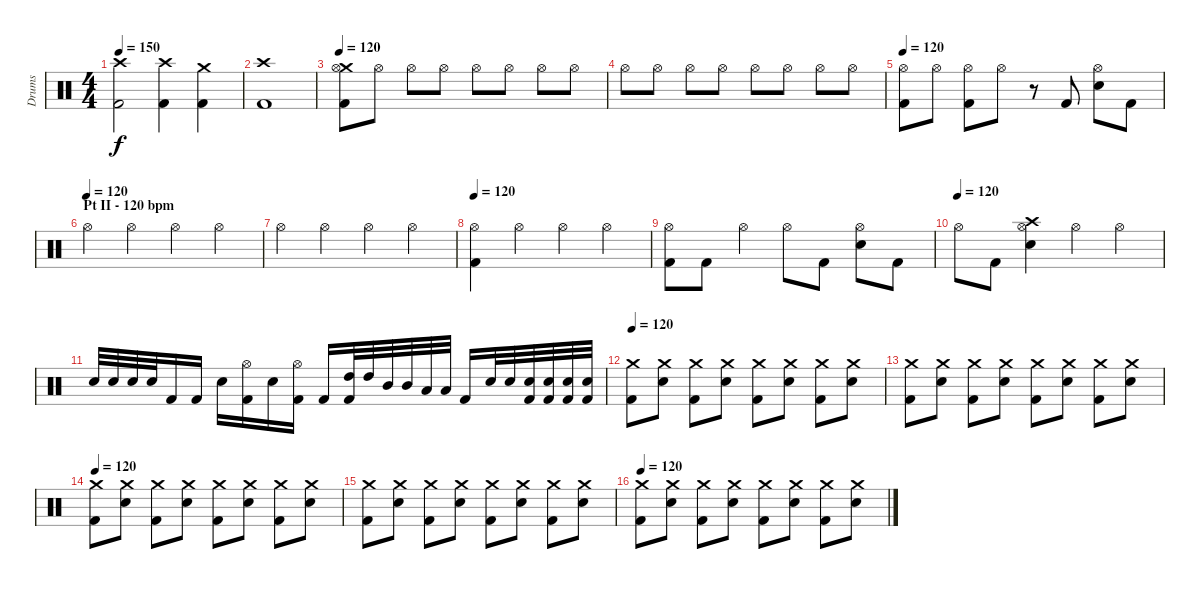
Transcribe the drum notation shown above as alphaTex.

\track ("Drums" "Drums") {instrument percussion}
\staff {score}
\articulation defaults
\ts (4 4)
\tempo 150
\clef neutral
\ks c
("Crash high (hit)" "Kick (hit) 2").2{dy f} ("Crash high (hit)" "Kick (hit) 2").4 ("Crash medium (hit)" "Kick (hit) 2").4 |
("Crash high (hit)" "Kick (hit) 2").1 |
\tempo 120
("Crash medium (hit)" "Hi-Hat (open)" "Kick (hit) 2").8 "Hi-Hat (open)".8 "Hi-Hat (open)".8 "Hi-Hat (open)".8 "Hi-Hat (open)".8 "Hi-Hat (open)".8 "Hi-Hat (open)".8 "Hi-Hat (open)".8 |
"Hi-Hat (open)".8 "Hi-Hat (open)".8 "Hi-Hat (open)".8 "Hi-Hat (open)".8 "Hi-Hat (open)".8 "Hi-Hat (open)".8 "Hi-Hat (open)".8 "Hi-Hat (open)".8 |
\tempo 120
("Hi-Hat (open)" "Kick (hit) 2").8 "Hi-Hat (open)".8 ("Hi-Hat (open)" "Kick (hit) 2").8 "Hi-Hat (open)".8 r.8 "Kick (hit) 2".8 ("Hi-Hat (open)" "Electric Snare (hit)").8 "Kick (hit) 2".8 |
\section ("" "Pt II - 120 bpm")
\tempo (120)
"Hi-Hat (open)".4 "Hi-Hat (open)".4 "Hi-Hat (open)".4 "Hi-Hat (open)".4 |
"Hi-Hat (open)".4 "Hi-Hat (open)".4 "Hi-Hat (open)".4 "Hi-Hat (open)".4 |
\tempo 120
("Hi-Hat (open)" "Kick (hit) 2").4 "Hi-Hat (open)".4 "Hi-Hat (open)".4 "Hi-Hat (open)".4 |
("Hi-Hat (open)" "Kick (hit) 2").8 "Kick (hit) 2".8 "Hi-Hat (open)".4 "Hi-Hat (open)".8 "Kick (hit) 2".8 ("Hi-Hat (open)" "Electric Snare (hit)").8 "Kick (hit) 2".8 |
\tempo (120)
"Hi-Hat (open)".8 "Kick (hit) 2".8 ("Crash high (hit)" "Hi-Hat (open)" "Electric Snare (hit)").4 "Hi-Hat (open)".4 "Hi-Hat (open)".4 |
"Electric Snare (hit)".32 "Electric Snare (hit)".32 "Electric Snare (hit)".32 "Electric Snare (hit)".32 "Kick (hit) 2".16 "Kick (hit) 2".16 "Electric Snare (hit)".16 ("Hi-Hat (open)" "Kick (hit) 2").16 "Electric Snare (hit)".16 ("Hi-Hat (open)" "Kick (hit) 2").16 "Kick (hit) 2".16 ("High Tom (hit)" "Kick (hit) 2").32 "High Tom (hit)".32 "Mid Tom (hit)".32 "Mid Tom (hit)".32 "Low Tom (hit)".32 "Low Tom (hit)".32 "Kick (hit) 2".16 "Electric Snare (hit)".32 "Electric Snare (hit)".32 ("Electric Snare (hit)" "Kick (hit) 2").32 ("Electric Snare (hit)" "Kick (hit) 2").32 ("Electric Snare (hit)" "Kick (hit) 2").32 ("Electric Snare (hit)" "Kick (hit) 2").32 |
\tempo 120
("Crash medium (hit)" "Kick (hit) 2").8 ("Crash medium (hit)" "Electric Snare (hit)").8 ("Crash medium (hit)" "Kick (hit) 2").8 ("Crash medium (hit)" "Electric Snare (hit)").8 ("Crash medium (hit)" "Kick (hit) 2").8 ("Crash medium (hit)" "Electric Snare (hit)").8 ("Crash medium (hit)" "Kick (hit) 2").8 ("Crash medium (hit)" "Electric Snare (hit)").8 |
("Crash medium (hit)" "Kick (hit) 2").8 ("Crash medium (hit)" "Electric Snare (hit)").8 ("Crash medium (hit)" "Kick (hit) 2").8 ("Crash medium (hit)" "Electric Snare (hit)").8 ("Crash medium (hit)" "Kick (hit) 2").8 ("Crash medium (hit)" "Electric Snare (hit)").8 ("Crash medium (hit)" "Kick (hit) 2").8 ("Crash medium (hit)" "Electric Snare (hit)").8 |
\tempo 120
("Crash medium (hit)" "Kick (hit) 2").8 ("Crash medium (hit)" "Electric Snare (hit)").8 ("Crash medium (hit)" "Kick (hit) 2").8 ("Crash medium (hit)" "Electric Snare (hit)").8 ("Crash medium (hit)" "Kick (hit) 2").8 ("Crash medium (hit)" "Electric Snare (hit)").8 ("Crash medium (hit)" "Kick (hit) 2").8 ("Crash medium (hit)" "Electric Snare (hit)").8 |
("Crash medium (hit)" "Kick (hit) 2").8 ("Crash medium (hit)" "Electric Snare (hit)").8 ("Crash medium (hit)" "Kick (hit) 2").8 ("Crash medium (hit)" "Electric Snare (hit)").8 ("Crash medium (hit)" "Kick (hit) 2").8 ("Crash medium (hit)" "Electric Snare (hit)").8 ("Crash medium (hit)" "Kick (hit) 2").8 ("Crash medium (hit)" "Electric Snare (hit)").8 |
\tempo 120
("Crash medium (hit)" "Kick (hit) 2").8 ("Crash medium (hit)" "Electric Snare (hit)").8 ("Crash medium (hit)" "Kick (hit) 2").8 ("Crash medium (hit)" "Electric Snare (hit)").8 ("Crash medium (hit)" "Kick (hit) 2").8 ("Crash medium (hit)" "Electric Snare (hit)").8 ("Crash medium (hit)" "Kick (hit) 2").8 ("Crash medium (hit)" "Electric Snare (hit)").8
